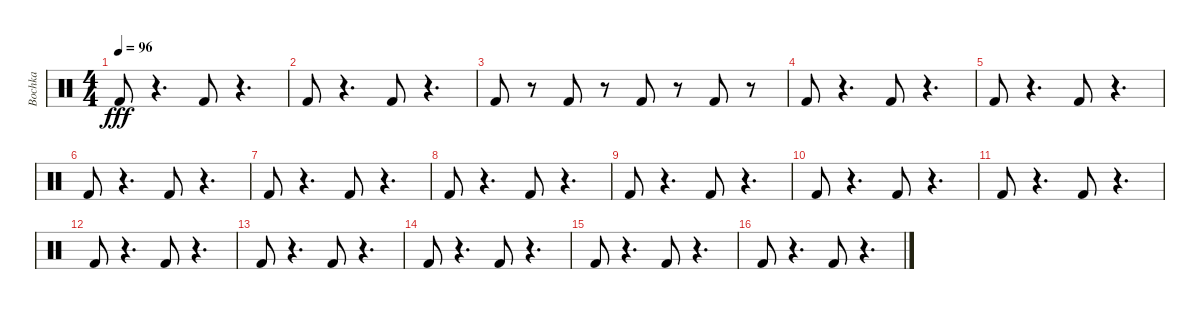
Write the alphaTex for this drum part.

\track ("Bochka" "Bochka") {instrument percussion}
\staff {score}
\articulation defaults
\ts (4 4)
\tempo 96
\clef neutral
\ks c "Kick (hit) 2".8{dy fff}
r.4{d} "Kick (hit) 2".8 r.4{d} |
"Kick (hit) 2".8 r.4{d} "Kick (hit) 2".8 r.4{d} |
"Kick (hit) 2".8 r.8 "Kick (hit) 2".8 r.8 "Kick (hit) 2".8 r.8 "Kick (hit) 2".8 r.8 |
"Kick (hit) 2".8 r.4{d} "Kick (hit) 2".8 r.4{d} |
"Kick (hit) 2".8 r.4{d} "Kick (hit) 2".8 r.4{d} |
"Kick (hit) 2".8 r.4{d} "Kick (hit) 2".8 r.4{d} |
"Kick (hit) 2".8 r.4{d} "Kick (hit) 2".8 r.4{d} |
"Kick (hit) 2".8 r.4{d} "Kick (hit) 2".8 r.4{d} |
"Kick (hit) 2".8 r.4{d} "Kick (hit) 2".8 r.4{d} |
"Kick (hit) 2".8 r.4{d} "Kick (hit) 2".8 r.4{d} |
"Kick (hit) 2".8 r.4{d} "Kick (hit) 2".8 r.4{d} |
"Kick (hit) 2".8 r.4{d} "Kick (hit) 2".8 r.4{d} |
"Kick (hit) 2".8 r.4{d} "Kick (hit) 2".8 r.4{d} |
"Kick (hit) 2".8 r.4{d} "Kick (hit) 2".8 r.4{d} |
"Kick (hit) 2".8 r.4{d} "Kick (hit) 2".8 r.4{d} |
"Kick (hit) 2".8 r.4{d} "Kick (hit) 2".8 r.4{d}
